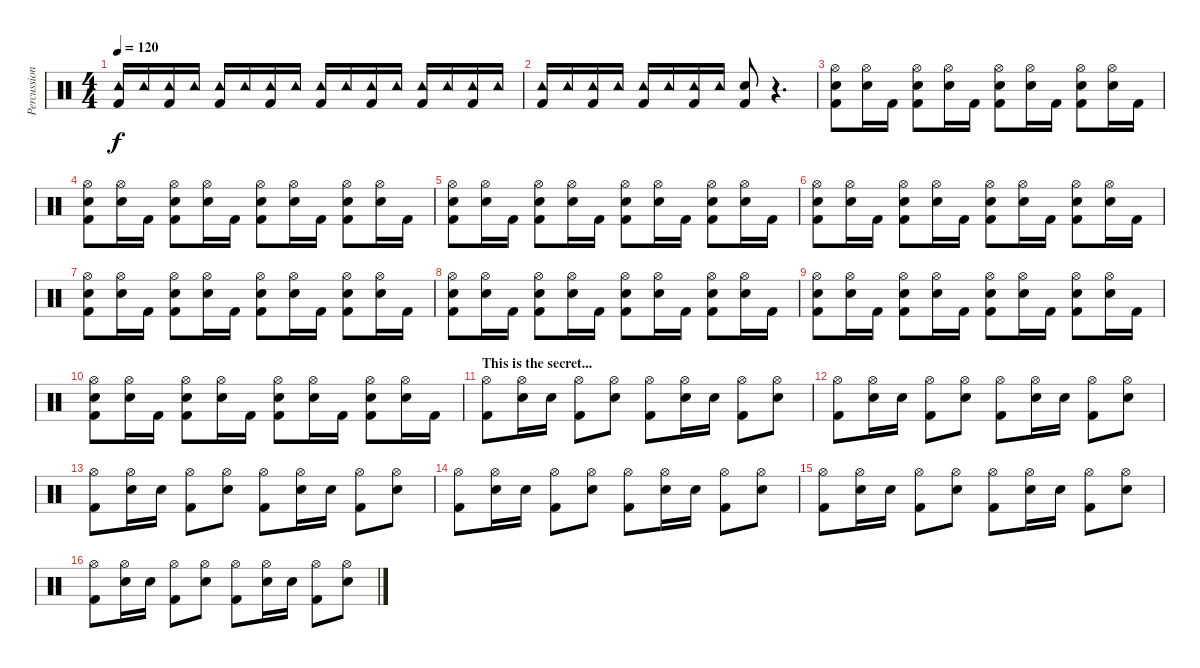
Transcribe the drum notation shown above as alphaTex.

\track ("Percussions" "Percussion") {instrument percussion}
\staff {score}
\articulation defaults
\ts (4 4)
\tempo 120
\clef neutral
\ks c
("Kick (hit) 2" "Tambourine (hit)").16{dy f} "Tambourine (hit)".16 ("Kick (hit) 2" "Tambourine (hit)").16 "Tambourine (hit)".16 ("Kick (hit) 2" "Tambourine (hit)").16 "Tambourine (hit)".16 ("Kick (hit) 2" "Tambourine (hit)").16 "Tambourine (hit)".16 ("Kick (hit) 2" "Tambourine (hit)").16 "Tambourine (hit)".16 ("Kick (hit) 2" "Tambourine (hit)").16 "Tambourine (hit)".16 ("Kick (hit) 2" "Tambourine (hit)").16 "Tambourine (hit)".16 ("Kick (hit) 2" "Tambourine (hit)").16 "Tambourine (hit)".16 |
("Kick (hit) 2" "Tambourine (hit)").16 "Tambourine (hit)".16 ("Kick (hit) 2" "Tambourine (hit)").16 "Tambourine (hit)".16 ("Kick (hit) 2" "Tambourine (hit)").16 "Tambourine (hit)".16 ("Kick (hit) 2" "Tambourine (hit)").16 "Tambourine (hit)".16 ("Kick (hit) 2" "Snare (hit) 2").8 r.4{d} |
("Kick (hit) 2" "Hi-Hat (open)" "Snare (hit) 2").8 ("Hi-Hat (open)" "Snare (hit) 2").16 "Kick (hit) 2".16 ("Kick (hit) 2" "Hi-Hat (open)" "Snare (hit) 2").8 ("Hi-Hat (open)" "Snare (hit) 2").16 "Kick (hit) 2".16 ("Kick (hit) 2" "Hi-Hat (open)" "Snare (hit) 2").8 ("Hi-Hat (open)" "Snare (hit) 2").16 "Kick (hit) 2".16 ("Kick (hit) 2" "Hi-Hat (open)" "Snare (hit) 2").8 ("Hi-Hat (open)" "Snare (hit) 2").16 "Kick (hit) 2".16 |
("Kick (hit) 2" "Hi-Hat (open)" "Snare (hit) 2").8 ("Hi-Hat (open)" "Snare (hit) 2").16 "Kick (hit) 2".16 ("Kick (hit) 2" "Hi-Hat (open)" "Snare (hit) 2").8 ("Hi-Hat (open)" "Snare (hit) 2").16 "Kick (hit) 2".16 ("Kick (hit) 2" "Hi-Hat (open)" "Snare (hit) 2").8 ("Hi-Hat (open)" "Snare (hit) 2").16 "Kick (hit) 2".16 ("Kick (hit) 2" "Hi-Hat (open)" "Snare (hit) 2").8 ("Hi-Hat (open)" "Snare (hit) 2").16 "Kick (hit) 2".16 |
("Kick (hit) 2" "Hi-Hat (open)" "Snare (hit) 2").8 ("Hi-Hat (open)" "Snare (hit) 2").16 "Kick (hit) 2".16 ("Kick (hit) 2" "Hi-Hat (open)" "Snare (hit) 2").8 ("Hi-Hat (open)" "Snare (hit) 2").16 "Kick (hit) 2".16 ("Kick (hit) 2" "Hi-Hat (open)" "Snare (hit) 2").8 ("Hi-Hat (open)" "Snare (hit) 2").16 "Kick (hit) 2".16 ("Kick (hit) 2" "Hi-Hat (open)" "Snare (hit) 2").8 ("Hi-Hat (open)" "Snare (hit) 2").16 "Kick (hit) 2".16 |
("Kick (hit) 2" "Hi-Hat (open)" "Snare (hit) 2").8 ("Hi-Hat (open)" "Snare (hit) 2").16 "Kick (hit) 2".16 ("Kick (hit) 2" "Hi-Hat (open)" "Snare (hit) 2").8 ("Hi-Hat (open)" "Snare (hit) 2").16 "Kick (hit) 2".16 ("Kick (hit) 2" "Hi-Hat (open)" "Snare (hit) 2").8 ("Hi-Hat (open)" "Snare (hit) 2").16 "Kick (hit) 2".16 ("Kick (hit) 2" "Hi-Hat (open)" "Snare (hit) 2").8 ("Hi-Hat (open)" "Snare (hit) 2").16 "Kick (hit) 2".16 |
("Kick (hit) 2" "Hi-Hat (open)" "Snare (hit) 2").8 ("Hi-Hat (open)" "Snare (hit) 2").16 "Kick (hit) 2".16 ("Kick (hit) 2" "Hi-Hat (open)" "Snare (hit) 2").8 ("Hi-Hat (open)" "Snare (hit) 2").16 "Kick (hit) 2".16 ("Kick (hit) 2" "Hi-Hat (open)" "Snare (hit) 2").8 ("Hi-Hat (open)" "Snare (hit) 2").16 "Kick (hit) 2".16 ("Kick (hit) 2" "Hi-Hat (open)" "Snare (hit) 2").8 ("Hi-Hat (open)" "Snare (hit) 2").16 "Kick (hit) 2".16 |
("Kick (hit) 2" "Hi-Hat (open)" "Snare (hit) 2").8 ("Hi-Hat (open)" "Snare (hit) 2").16 "Kick (hit) 2".16 ("Kick (hit) 2" "Hi-Hat (open)" "Snare (hit) 2").8 ("Hi-Hat (open)" "Snare (hit) 2").16 "Kick (hit) 2".16 ("Kick (hit) 2" "Hi-Hat (open)" "Snare (hit) 2").8 ("Hi-Hat (open)" "Snare (hit) 2").16 "Kick (hit) 2".16 ("Kick (hit) 2" "Hi-Hat (open)" "Snare (hit) 2").8 ("Hi-Hat (open)" "Snare (hit) 2").16 "Kick (hit) 2".16 |
("Kick (hit) 2" "Hi-Hat (open)" "Snare (hit) 2").8 ("Hi-Hat (open)" "Snare (hit) 2").16 "Kick (hit) 2".16 ("Kick (hit) 2" "Hi-Hat (open)" "Snare (hit) 2").8 ("Hi-Hat (open)" "Snare (hit) 2").16 "Kick (hit) 2".16 ("Kick (hit) 2" "Hi-Hat (open)" "Snare (hit) 2").8 ("Hi-Hat (open)" "Snare (hit) 2").16 "Kick (hit) 2".16 ("Kick (hit) 2" "Hi-Hat (open)" "Snare (hit) 2").8 ("Hi-Hat (open)" "Snare (hit) 2").16 "Kick (hit) 2".16 |
("Kick (hit) 2" "Hi-Hat (open)" "Snare (hit) 2").8 ("Hi-Hat (open)" "Snare (hit) 2").16 "Kick (hit) 2".16 ("Kick (hit) 2" "Hi-Hat (open)" "Snare (hit) 2").8 ("Hi-Hat (open)" "Snare (hit) 2").16 "Kick (hit) 2".16 ("Kick (hit) 2" "Hi-Hat (open)" "Snare (hit) 2").8 ("Hi-Hat (open)" "Snare (hit) 2").16 "Kick (hit) 2".16 ("Kick (hit) 2" "Hi-Hat (open)" "Snare (hit) 2").8 ("Hi-Hat (open)" "Snare (hit) 2").16 "Kick (hit) 2".16 |
\section ("" "This is the secret...")
("Kick (hit) 2" "Hi-Hat (open)").8 ("Hi-Hat (open)" "Snare (hit) 2").16 "Snare (hit) 2".16 ("Kick (hit) 2" "Hi-Hat (open)").8 ("Hi-Hat (open)" "Snare (hit) 2").8 ("Kick (hit) 2" "Hi-Hat (open)").8 ("Hi-Hat (open)" "Snare (hit) 2").16 "Snare (hit) 2".16 ("Kick (hit) 2" "Hi-Hat (open)").8 ("Hi-Hat (open)" "Snare (hit) 2").8 |
("Kick (hit) 2" "Hi-Hat (open)").8 ("Hi-Hat (open)" "Snare (hit) 2").16 "Snare (hit) 2".16 ("Kick (hit) 2" "Hi-Hat (open)").8 ("Hi-Hat (open)" "Snare (hit) 2").8 ("Kick (hit) 2" "Hi-Hat (open)").8 ("Hi-Hat (open)" "Snare (hit) 2").16 "Snare (hit) 2".16 ("Kick (hit) 2" "Hi-Hat (open)").8 ("Hi-Hat (open)" "Snare (hit) 2").8 |
("Kick (hit) 2" "Hi-Hat (open)").8 ("Hi-Hat (open)" "Snare (hit) 2").16 "Snare (hit) 2".16 ("Kick (hit) 2" "Hi-Hat (open)").8 ("Hi-Hat (open)" "Snare (hit) 2").8 ("Kick (hit) 2" "Hi-Hat (open)").8 ("Hi-Hat (open)" "Snare (hit) 2").16 "Snare (hit) 2".16 ("Kick (hit) 2" "Hi-Hat (open)").8 ("Hi-Hat (open)" "Snare (hit) 2").8 |
("Kick (hit) 2" "Hi-Hat (open)").8 ("Hi-Hat (open)" "Snare (hit) 2").16 "Snare (hit) 2".16 ("Kick (hit) 2" "Hi-Hat (open)").8 ("Hi-Hat (open)" "Snare (hit) 2").8 ("Kick (hit) 2" "Hi-Hat (open)").8 ("Hi-Hat (open)" "Snare (hit) 2").16 "Snare (hit) 2".16 ("Kick (hit) 2" "Hi-Hat (open)").8 ("Hi-Hat (open)" "Snare (hit) 2").8 |
("Kick (hit) 2" "Hi-Hat (open)").8 ("Hi-Hat (open)" "Snare (hit) 2").16 "Snare (hit) 2".16 ("Kick (hit) 2" "Hi-Hat (open)").8 ("Hi-Hat (open)" "Snare (hit) 2").8 ("Kick (hit) 2" "Hi-Hat (open)").8 ("Hi-Hat (open)" "Snare (hit) 2").16 "Snare (hit) 2".16 ("Kick (hit) 2" "Hi-Hat (open)").8 ("Hi-Hat (open)" "Snare (hit) 2").8 |
("Kick (hit) 2" "Hi-Hat (open)").8 ("Hi-Hat (open)" "Snare (hit) 2").16 "Snare (hit) 2".16 ("Kick (hit) 2" "Hi-Hat (open)").8 ("Hi-Hat (open)" "Snare (hit) 2").8 ("Kick (hit) 2" "Hi-Hat (open)").8 ("Hi-Hat (open)" "Snare (hit) 2").16 "Snare (hit) 2".16 ("Kick (hit) 2" "Hi-Hat (open)").8 ("Hi-Hat (open)" "Snare (hit) 2").8
